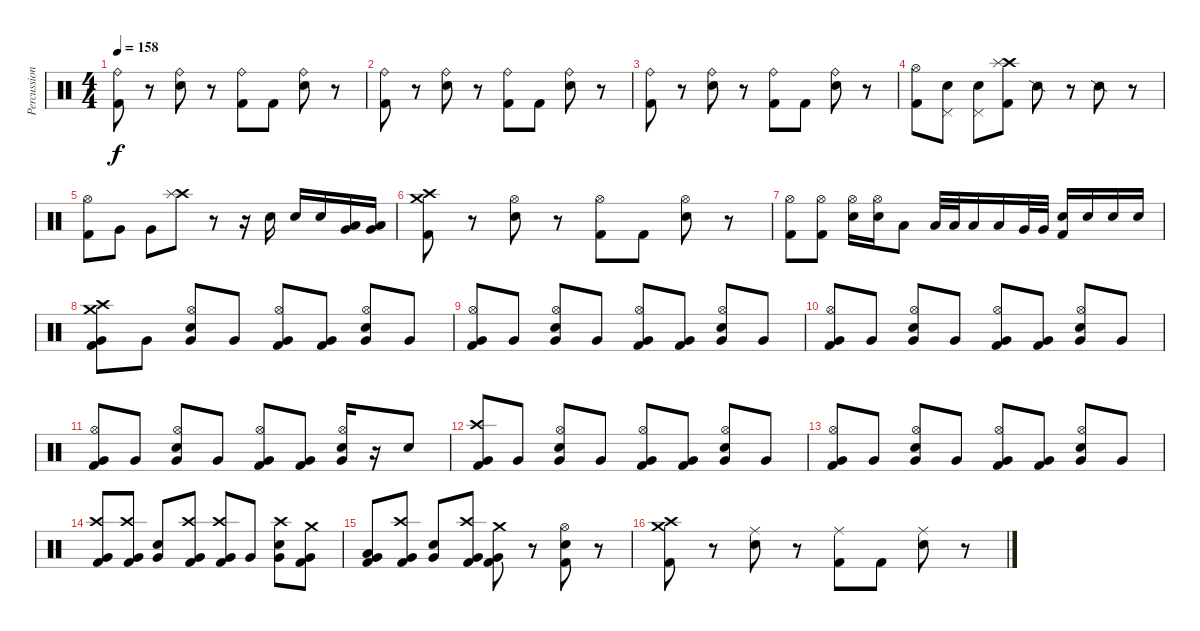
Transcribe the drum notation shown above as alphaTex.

\track ("Percussion" "Percussion") {instrument percussion}
\staff {score}
\articulation defaults
\ts (4 4)
\tempo 158
\clef neutral
\ks c
("Ride (bell)" "Kick (hit) 2").8{dy f} r.8 ("Ride (bell)" "Snare (hit) 2").8 r.8 ("Ride (bell)" "Kick (hit) 2").8 "Kick (hit) 2".8 ("Ride (bell)" "Snare (hit) 2").8 r.8 |
("Ride (bell)" "Kick (hit) 2").8 r.8 ("Ride (bell)" "Snare (hit) 2").8 r.8 ("Ride (bell)" "Kick (hit) 2").8 "Kick (hit) 2".8 ("Ride (bell)" "Snare (hit) 2").8 r.8 |
("Ride (bell)" "Kick (hit) 2").8 r.8 ("Ride (bell)" "Snare (hit) 2").8 r.8 ("Ride (bell)" "Kick (hit) 2").8 "Kick (hit) 2".8 ("Ride (bell)" "Snare (hit) 2").8 r.8 |
("Hi-Hat (open)" "Kick (hit) 2").8 ("Snare (hit) 2" "Pedal Hi-Hat (hit)").8 ("Snare (hit) 2" "Pedal Hi-Hat (hit)").8 ("Crash high (hit)" "Splash (hit)" "Kick (hit) 2").8 "Snare (side stick) 2".8 r.8 "Snare (side stick) 2".8 r.8 |
("Hi-Hat (open)" "Kick (hit) 2").8 "Very Low Tom (hit)".8 "Very Low Tom (hit)".8 ("Crash high (hit)" "Splash (hit)").8 r.8 r.16 "Snare (hit) 2".16 "Snare (hit) 2".16 "Snare (hit) 2".16 ("Low Tom (hit)" "Very Low Tom (hit)").16 ("Low Floor Tom (hit)" "Very Low Tom (hit)").16 |
("Crash high (hit)" "Crash medium (hit)" "Kick (hit) 2").8 r.8 ("Hi-Hat (open)" "Snare (hit) 2").8 r.8 ("Hi-Hat (open)" "Kick (hit) 2").8 "Kick (hit) 2".8 ("Hi-Hat (open)" "Snare (hit) 2").8 r.8 |
("Hi-Hat (open)" "Kick (hit) 2").8 ("Hi-Hat (open)" "Kick (hit) 2").8 ("Hi-Hat (open)" "Snare (hit) 2").16 ("Hi-Hat (open)" "Snare (hit) 2").16 "Low Tom (hit)".8 "Low Tom (hit)".32 "Low Tom (hit)".32 "Low Tom (hit)".16 "Low Tom (hit)".16 "Very Low Tom (hit)".32 "Very Low Tom (hit)".32 ("Snare (hit) 2" "Kick (hit) 2").16 "Snare (hit) 2".16 "Snare (hit) 2".16 "Snare (hit) 2".16 |
("Crash high (hit)" "Crash medium (hit)" "Kick (hit) 2" "Very Low Tom (hit)").8 "Very Low Tom (hit)".8 ("Hi-Hat (open)" "Snare (hit) 2" "Very Low Tom (hit)").8 "Very Low Tom (hit)".8 ("Hi-Hat (open)" "Kick (hit) 2" "Very Low Tom (hit)").8 ("Kick (hit) 2" "Very Low Tom (hit)").8 ("Hi-Hat (open)" "Snare (hit) 2" "Very Low Tom (hit)").8 "Very Low Tom (hit)".8 |
("Hi-Hat (open)" "Kick (hit) 2" "Very Low Tom (hit)").8 "Very Low Tom (hit)".8 ("Hi-Hat (open)" "Snare (hit) 2" "Very Low Tom (hit)").8 "Very Low Tom (hit)".8 ("Hi-Hat (open)" "Kick (hit) 2" "Very Low Tom (hit)").8 ("Kick (hit) 2" "Very Low Tom (hit)").8 ("Hi-Hat (open)" "Snare (hit) 2" "Very Low Tom (hit)").8 "Very Low Tom (hit)".8 |
("Hi-Hat (open)" "Kick (hit) 2" "Very Low Tom (hit)").8 "Very Low Tom (hit)".8 ("Hi-Hat (open)" "Snare (hit) 2" "Very Low Tom (hit)").8 "Very Low Tom (hit)".8 ("Hi-Hat (open)" "Kick (hit) 2" "Very Low Tom (hit)").8 ("Kick (hit) 2" "Very Low Tom (hit)").8 ("Hi-Hat (open)" "Snare (hit) 2" "Very Low Tom (hit)").8 "Very Low Tom (hit)".8 |
("Hi-Hat (open)" "Kick (hit) 2" "Very Low Tom (hit)").8 "Very Low Tom (hit)".8 ("Hi-Hat (open)" "Snare (hit) 2" "Very Low Tom (hit)").8 "Very Low Tom (hit)".8 ("Hi-Hat (open)" "Kick (hit) 2" "Very Low Tom (hit)").8 ("Kick (hit) 2" "Very Low Tom (hit)").8 ("Hi-Hat (open)" "Snare (hit) 2" "Very Low Tom (hit)").16 r.16 "Snare (hit) 2".8 |
("Crash high (hit)" "Kick (hit) 2" "Very Low Tom (hit)").8 "Very Low Tom (hit)".8 ("Hi-Hat (open)" "Snare (hit) 2" "Very Low Tom (hit)").8 "Very Low Tom (hit)".8 ("Hi-Hat (open)" "Kick (hit) 2" "Very Low Tom (hit)").8 ("Kick (hit) 2" "Very Low Tom (hit)").8 ("Hi-Hat (open)" "Snare (hit) 2" "Very Low Tom (hit)").8 "Very Low Tom (hit)".8 |
("Hi-Hat (open)" "Kick (hit) 2" "Very Low Tom (hit)").8 "Very Low Tom (hit)".8 ("Hi-Hat (open)" "Snare (hit) 2" "Very Low Tom (hit)").8 "Very Low Tom (hit)".8 ("Hi-Hat (open)" "Kick (hit) 2" "Very Low Tom (hit)").8 ("Kick (hit) 2" "Very Low Tom (hit)").8 ("Hi-Hat (open)" "Snare (hit) 2" "Very Low Tom (hit)").8 "Very Low Tom (hit)".8 |
("Crash high (hit)" "Kick (hit) 2" "Very Low Tom (hit)").8 ("Crash high (hit)" "Kick (hit) 2" "Very Low Tom (hit)").8 ("Snare (hit) 2" "Very Low Tom (hit)").8 ("Crash high (hit)" "Kick (hit) 2" "Very Low Tom (hit)").8 ("Crash high (hit)" "Kick (hit) 2" "Very Low Tom (hit)").8 "Very Low Tom (hit)".8 ("Crash high (hit)" "Snare (hit) 2" "Very Low Tom (hit)").8 ("Crash medium (hit)" "Kick (hit) 2" "Very Low Tom (hit)").8 |
("Low Tom (hit)" "Kick (hit) 2" "Very Low Tom (hit)").8 ("Crash high (hit)" "Kick (hit) 2" "Very Low Tom (hit)").8 ("Snare (hit) 2" "Very Low Tom (hit)").8 ("Crash high (hit)" "Kick (hit) 2" "Very Low Tom (hit)").8 ("Crash medium (hit)" "Kick (hit) 2" "Very Low Tom (hit)").8 r.8 ("Hi-Hat (open)" "Snare (hit) 2" "Kick (hit) 2").8 r.8 |
("Crash high (hit)" "Crash medium (hit)" "Kick (hit) 2").8 r.8 ("Ride (middle)" "Snare (hit) 2").8 r.8 ("Ride (middle)" "Kick (hit) 2").8 "Kick (hit) 2".8 ("Ride (middle)" "Snare (hit) 2").8 r.8
